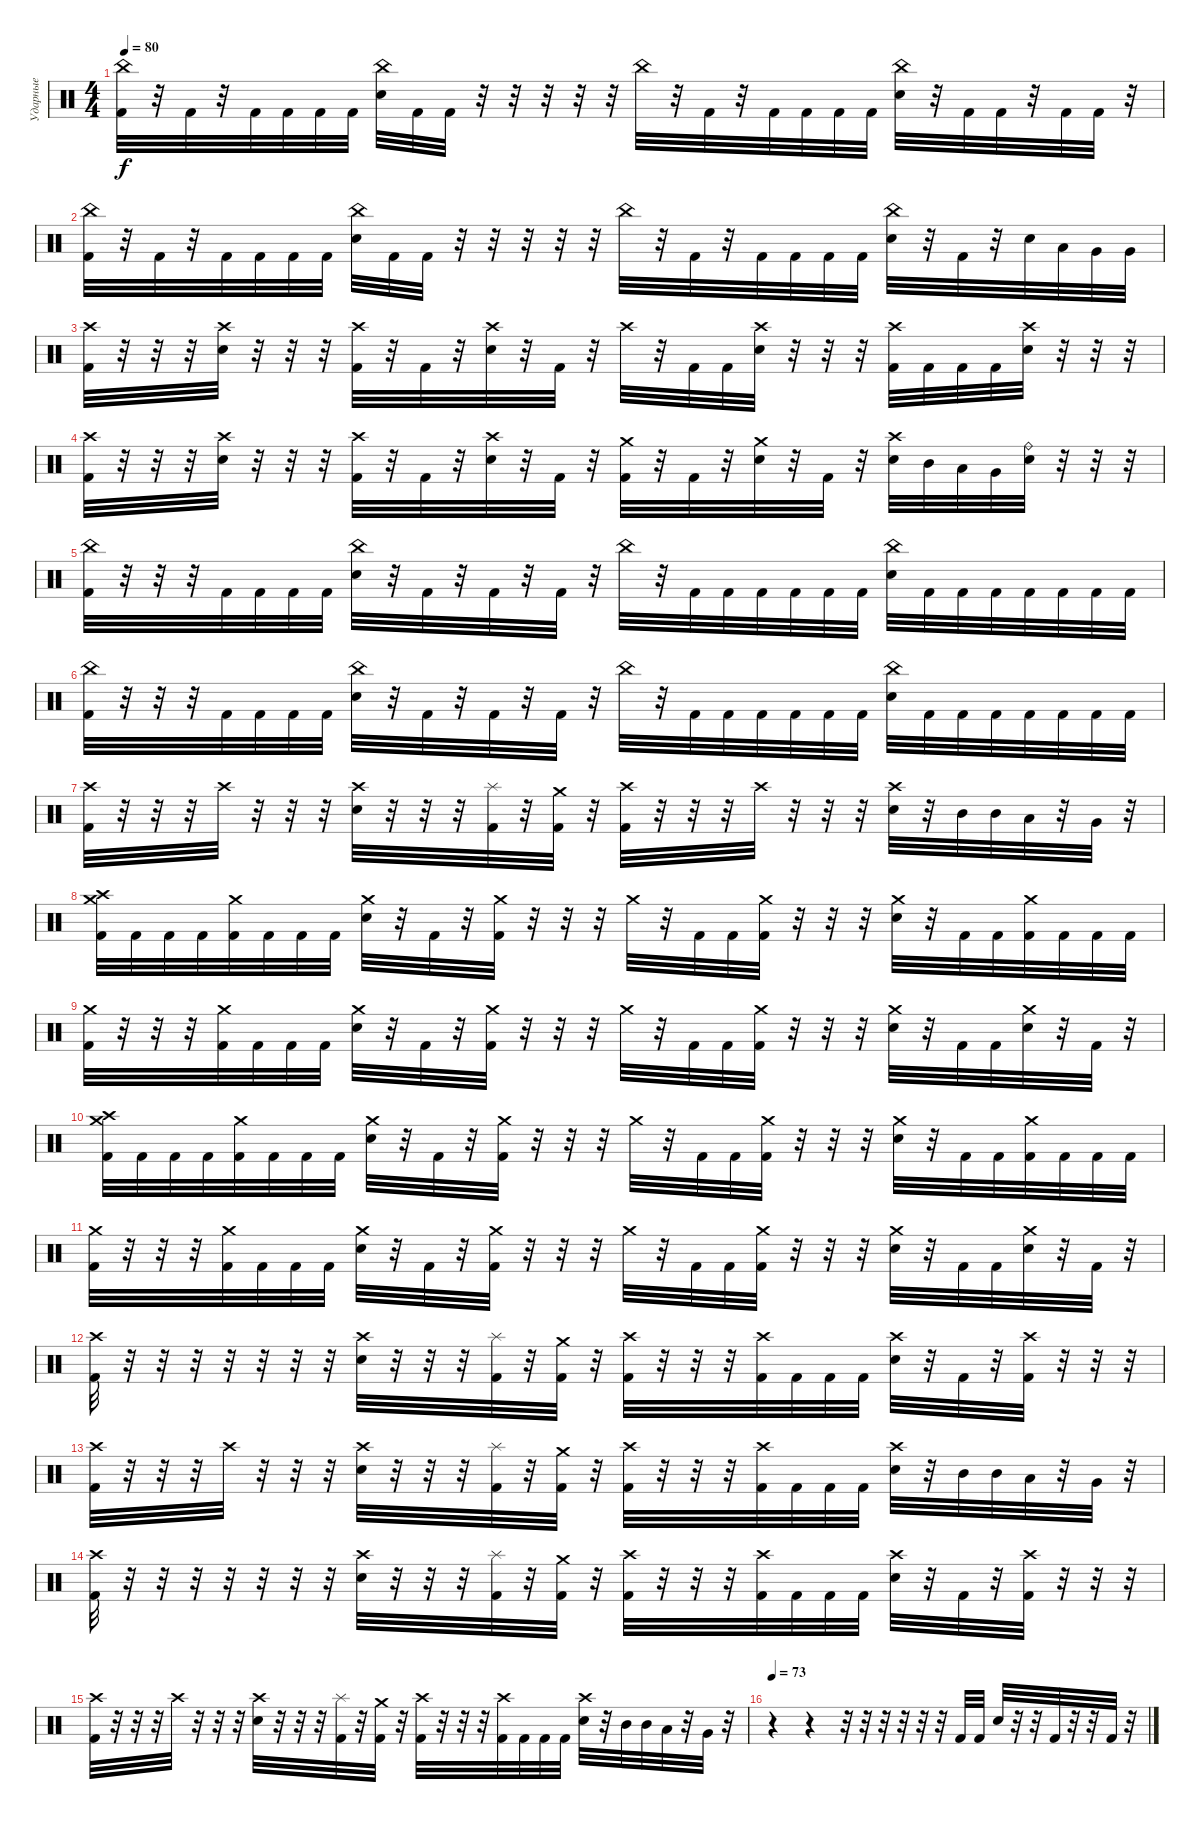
\track ("Ударные" "Ударные") {instrument percussion}
\staff {score}
\articulation defaults
\ts (4 4)
\tempo 80
\clef neutral
\ks c
("China (hit)" "Kick (hit) 2").32{dy f} r.32 "Kick (hit) 2".32 r.32 "Kick (hit) 2".32 "Kick (hit) 2".32 "Kick (hit) 2".32 "Kick (hit) 2".32 ("China (hit)" "Snare (hit) 2").32 "Kick (hit) 2".32 "Kick (hit) 2".32 r.32 r.32 r.32 r.32 r.32 "China (hit)".32 r.32 "Kick (hit) 2".32 r.32 "Kick (hit) 2".32 "Kick (hit) 2".32 "Kick (hit) 2".32 "Kick (hit) 2".32 ("China (hit)" "Snare (hit) 2").32 r.32 "Kick (hit) 2".32 "Kick (hit) 2".32 r.32 "Kick (hit) 2".32 "Kick (hit) 2".32 r.32 |
("China (hit)" "Kick (hit) 2").32 r.32 "Kick (hit) 2".32 r.32 "Kick (hit) 2".32 "Kick (hit) 2".32 "Kick (hit) 2".32 "Kick (hit) 2".32 ("China (hit)" "Snare (hit) 2").32 "Kick (hit) 2".32 "Kick (hit) 2".32 r.32 r.32 r.32 r.32 r.32 "China (hit)".32 r.32 "Kick (hit) 2".32 r.32 "Kick (hit) 2".32 "Kick (hit) 2".32 "Kick (hit) 2".32 "Kick (hit) 2".32 ("China (hit)" "Snare (hit) 2").32 r.32 "Kick (hit) 2".32 r.32 "Snare (hit) 2".32 "Low Tom (hit)".32 "Very Low Tom (hit)".32 "Very Low Tom (hit)".32 |
("Crash high (hit)" "Kick (hit) 2").32 r.32 r.32 r.32 ("Crash high (hit)" "Snare (hit) 2").32 r.32 r.32 r.32 ("Crash high (hit)" "Kick (hit) 2").32 r.32 "Kick (hit) 2".32 r.32 ("Crash high (hit)" "Snare (hit) 2").32 r.32 "Kick (hit) 2".32 r.32 "Crash high (hit)".32 r.32 "Kick (hit) 2".32 "Kick (hit) 2".32 ("Crash high (hit)" "Snare (hit) 2").32 r.32 r.32 r.32 ("Crash high (hit)" "Kick (hit) 2").32 "Kick (hit) 2".32 "Kick (hit) 2".32 "Kick (hit) 2".32 ("Crash high (hit)" "Snare (hit) 2").32 r.32 r.32 r.32 |
("Crash high (hit)" "Kick (hit) 2").32 r.32 r.32 r.32 ("Crash high (hit)" "Snare (hit) 2").32 r.32 r.32 r.32 ("Crash high (hit)" "Kick (hit) 2").32 r.32 "Kick (hit) 2".32 r.32 ("Crash high (hit)" "Snare (hit) 2").32 r.32 "Kick (hit) 2".32 r.32 ("Crash medium (hit)" "Kick (hit) 2").32 r.32 "Kick (hit) 2".32 r.32 ("Crash medium (hit)" "Snare (hit) 2").32 r.32 "Kick (hit) 2".32 r.32 ("Crash high (hit)" "Snare (hit) 2").32 "Mid Tom (hit)".32 "Low Tom (hit)".32 "Very Low Tom (hit)".32 ("Ride (bell)" "Snare (hit) 2").32 r.32 r.32 r.32 |
("China (hit)" "Kick (hit) 2").32 r.32 r.32 r.32 "Kick (hit) 2".32 "Kick (hit) 2".32 "Kick (hit) 2".32 "Kick (hit) 2".32 ("China (hit)" "Snare (hit) 2").32 r.32 "Kick (hit) 2".32 r.32 "Kick (hit) 2".32 r.32 "Kick (hit) 2".32 r.32 "China (hit)".32 r.32 "Kick (hit) 2".32 "Kick (hit) 2".32 "Kick (hit) 2".32 "Kick (hit) 2".32 "Kick (hit) 2".32 "Kick (hit) 2".32 ("China (hit)" "Snare (hit) 2").32 "Kick (hit) 2".32 "Kick (hit) 2".32 "Kick (hit) 2".32 "Kick (hit) 2".32 "Kick (hit) 2".32 "Kick (hit) 2".32 "Kick (hit) 2".32 |
("China (hit)" "Kick (hit) 2").32 r.32 r.32 r.32 "Kick (hit) 2".32 "Kick (hit) 2".32 "Kick (hit) 2".32 "Kick (hit) 2".32 ("China (hit)" "Snare (hit) 2").32 r.32 "Kick (hit) 2".32 r.32 "Kick (hit) 2".32 r.32 "Kick (hit) 2".32 r.32 "China (hit)".32 r.32 "Kick (hit) 2".32 "Kick (hit) 2".32 "Kick (hit) 2".32 "Kick (hit) 2".32 "Kick (hit) 2".32 "Kick (hit) 2".32 ("China (hit)" "Snare (hit) 2").32 "Kick (hit) 2".32 "Kick (hit) 2".32 "Kick (hit) 2".32 "Kick (hit) 2".32 "Kick (hit) 2".32 "Kick (hit) 2".32 "Kick (hit) 2".32 |
("Crash high (hit)" "Kick (hit) 2").32 r.32 r.32 r.32 "Crash high (hit)".32 r.32 r.32 r.32 ("Crash high (hit)" "Snare (hit) 2").32 r.32 r.32 r.32 ("Splash (hit)" "Kick (hit) 2").32 r.32 ("Crash medium (hit)" "Kick (hit) 2").32 r.32 ("Crash high (hit)" "Kick (hit) 2").32 r.32 r.32 r.32 "Crash high (hit)".32 r.32 r.32 r.32 ("Crash high (hit)" "Snare (hit) 2").32 r.32 "Mid Tom (hit)".32 "Mid Tom (hit)".32 "Low Tom (hit)".32 r.32 "Very Low Tom (hit)".32 r.32 |
("Crash medium (hit)" "Crash high (hit)" "Kick (hit) 2").32 "Kick (hit) 2".32 "Kick (hit) 2".32 "Kick (hit) 2".32 ("Crash medium (hit)" "Kick (hit) 2").32 "Kick (hit) 2".32 "Kick (hit) 2".32 "Kick (hit) 2".32 ("Crash medium (hit)" "Snare (hit) 2").32 r.32 "Kick (hit) 2".32 r.32 ("Crash medium (hit)" "Kick (hit) 2").32 r.32 r.32 r.32 "Crash medium (hit)".32 r.32 "Kick (hit) 2".32 "Kick (hit) 2".32 ("Crash medium (hit)" "Kick (hit) 2").32 r.32 r.32 r.32 ("Crash medium (hit)" "Snare (hit) 2").32 r.32 "Kick (hit) 2".32 "Kick (hit) 2".32 ("Crash medium (hit)" "Kick (hit) 2").32 "Kick (hit) 2".32 "Kick (hit) 2".32 "Kick (hit) 2".32 |
("Crash medium (hit)" "Kick (hit) 2").32 r.32 r.32 r.32 ("Crash medium (hit)" "Kick (hit) 2").32 "Kick (hit) 2".32 "Kick (hit) 2".32 "Kick (hit) 2".32 ("Crash medium (hit)" "Snare (hit) 2").32 r.32 "Kick (hit) 2".32 r.32 ("Crash medium (hit)" "Kick (hit) 2").32 r.32 r.32 r.32 "Crash medium (hit)".32 r.32 "Kick (hit) 2".32 "Kick (hit) 2".32 ("Crash medium (hit)" "Kick (hit) 2").32 r.32 r.32 r.32 ("Crash medium (hit)" "Snare (hit) 2").32 r.32 "Kick (hit) 2".32 "Kick (hit) 2".32 ("Crash medium (hit)" "Snare (hit) 2").32 r.32 "Kick (hit) 2".32 r.32 |
("Crash medium (hit)" "Crash high (hit)" "Kick (hit) 2").32 "Kick (hit) 2".32 "Kick (hit) 2".32 "Kick (hit) 2".32 ("Crash medium (hit)" "Kick (hit) 2").32 "Kick (hit) 2".32 "Kick (hit) 2".32 "Kick (hit) 2".32 ("Crash medium (hit)" "Snare (hit) 2").32 r.32 "Kick (hit) 2".32 r.32 ("Crash medium (hit)" "Kick (hit) 2").32 r.32 r.32 r.32 "Crash medium (hit)".32 r.32 "Kick (hit) 2".32 "Kick (hit) 2".32 ("Crash medium (hit)" "Kick (hit) 2").32 r.32 r.32 r.32 ("Crash medium (hit)" "Snare (hit) 2").32 r.32 "Kick (hit) 2".32 "Kick (hit) 2".32 ("Crash medium (hit)" "Kick (hit) 2").32 "Kick (hit) 2".32 "Kick (hit) 2".32 "Kick (hit) 2".32 |
("Crash medium (hit)" "Kick (hit) 2").32 r.32 r.32 r.32 ("Crash medium (hit)" "Kick (hit) 2").32 "Kick (hit) 2".32 "Kick (hit) 2".32 "Kick (hit) 2".32 ("Crash medium (hit)" "Snare (hit) 2").32 r.32 "Kick (hit) 2".32 r.32 ("Crash medium (hit)" "Kick (hit) 2").32 r.32 r.32 r.32 "Crash medium (hit)".32 r.32 "Kick (hit) 2".32 "Kick (hit) 2".32 ("Crash medium (hit)" "Kick (hit) 2").32 r.32 r.32 r.32 ("Crash medium (hit)" "Snare (hit) 2").32 r.32 "Kick (hit) 2".32 "Kick (hit) 2".32 ("Crash medium (hit)" "Snare (hit) 2").32 r.32 "Kick (hit) 2".32 r.32 |
("Crash high (hit)" "Kick (hit) 2").32 r.32 r.32 r.32 r.32 r.32 r.32 r.32 ("Crash high (hit)" "Snare (hit) 2").32 r.32 r.32 r.32 ("Splash (hit)" "Kick (hit) 2").32 r.32 ("Crash medium (hit)" "Kick (hit) 2").32 r.32 ("Crash high (hit)" "Kick (hit) 2").32 r.32 r.32 r.32 ("Crash high (hit)" "Kick (hit) 2").32 "Kick (hit) 2".32 "Kick (hit) 2".32 "Kick (hit) 2".32 ("Crash high (hit)" "Snare (hit) 2").32 r.32 "Kick (hit) 2".32 r.32 ("Crash high (hit)" "Kick (hit) 2").32 r.32 r.32 r.32 |
("Crash high (hit)" "Kick (hit) 2").32 r.32 r.32 r.32 "Crash high (hit)".32 r.32 r.32 r.32 ("Crash high (hit)" "Snare (hit) 2").32 r.32 r.32 r.32 ("Splash (hit)" "Kick (hit) 2").32 r.32 ("Crash medium (hit)" "Kick (hit) 2").32 r.32 ("Crash high (hit)" "Kick (hit) 2").32 r.32 r.32 r.32 ("Crash high (hit)" "Kick (hit) 2").32 "Kick (hit) 2".32 "Kick (hit) 2".32 "Kick (hit) 2".32 ("Crash high (hit)" "Snare (hit) 2").32 r.32 "Mid Tom (hit)".32 "Mid Tom (hit)".32 "Low Tom (hit)".32 r.32 "Very Low Tom (hit)".32 r.32 |
("Crash high (hit)" "Kick (hit) 2").32 r.32 r.32 r.32 r.32 r.32 r.32 r.32 ("Crash high (hit)" "Snare (hit) 2").32 r.32 r.32 r.32 ("Splash (hit)" "Kick (hit) 2").32 r.32 ("Crash medium (hit)" "Kick (hit) 2").32 r.32 ("Crash high (hit)" "Kick (hit) 2").32 r.32 r.32 r.32 ("Crash high (hit)" "Kick (hit) 2").32 "Kick (hit) 2".32 "Kick (hit) 2".32 "Kick (hit) 2".32 ("Crash high (hit)" "Snare (hit) 2").32 r.32 "Kick (hit) 2".32 r.32 ("Crash high (hit)" "Kick (hit) 2").32 r.32 r.32 r.32 |
("Crash high (hit)" "Kick (hit) 2").32 r.32 r.32 r.32 "Crash high (hit)".32 r.32 r.32 r.32 ("Crash high (hit)" "Snare (hit) 2").32 r.32 r.32 r.32 ("Splash (hit)" "Kick (hit) 2").32 r.32 ("Crash medium (hit)" "Kick (hit) 2").32 r.32 ("Crash high (hit)" "Kick (hit) 2").32 r.32 r.32 r.32 ("Crash high (hit)" "Kick (hit) 2").32 "Kick (hit) 2".32 "Kick (hit) 2".32 "Kick (hit) 2".32 ("Crash high (hit)" "Snare (hit) 2").32 r.32 "Mid Tom (hit)".32 "Mid Tom (hit)".32 "Low Tom (hit)".32 r.32 "Very Low Tom (hit)".32 r.32 |
\tempo 73
r.4 r.4 r.32 r.32 r.32 r.32 r.32 r.32 "Kick (hit) 2".32 "Kick (hit) 2".32 "Snare (hit) 2".32 r.32 r.32 "Kick (hit) 2".32 r.32 r.32 "Kick (hit) 2".32 r.32
